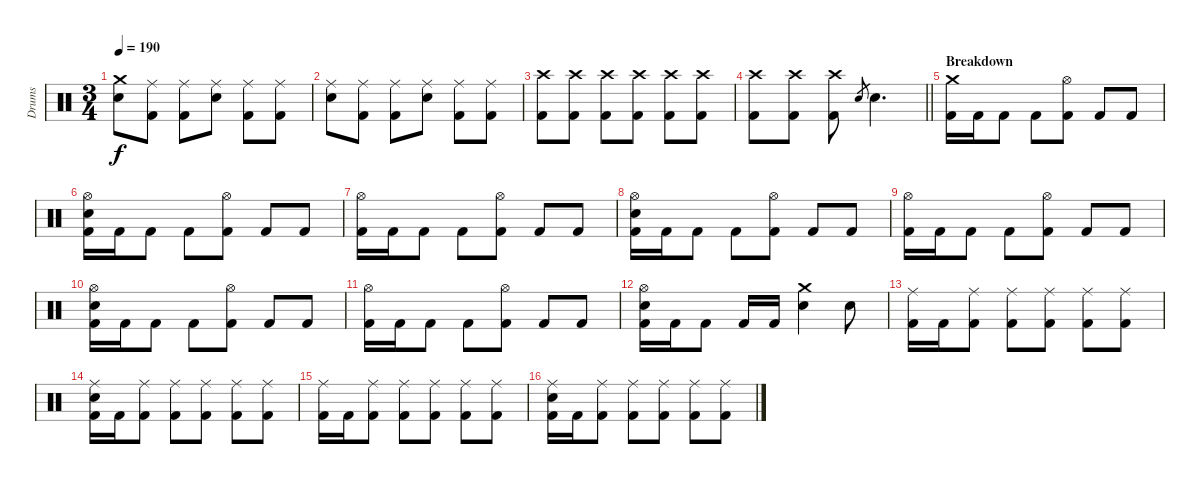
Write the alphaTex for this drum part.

\track ("Drums" "Drums") {instrument percussion}
\staff {score}
\articulation defaults
\ts (3 4)
\tempo 190
\clef neutral
\ks c
("Crash medium (hit)" "Snare (hit) 2").8{dy f} ("Ride (middle)" "Kick (hit) 2").8 ("Ride (middle)" "Kick (hit) 2").8 ("Ride (middle)" "Snare (hit) 2").8 ("Ride (middle)" "Kick (hit) 2").8 ("Ride (middle)" "Kick (hit) 2").8 |
("Ride (middle)" "Snare (hit) 2").8 ("Ride (middle)" "Kick (hit) 2").8 ("Ride (middle)" "Kick (hit) 2").8 ("Ride (middle)" "Snare (hit) 2").8 ("Ride (middle)" "Kick (hit) 2").8 ("Ride (middle)" "Kick (hit) 2").8 |
("Crash high (hit)" "Kick (hit) 2").8 ("Crash high (hit)" "Kick (hit) 2").8 ("Crash high (hit)" "Kick (hit) 2").8 ("Crash high (hit)" "Kick (hit) 2").8 ("Crash high (hit)" "Kick (hit) 2").8 ("Crash high (hit)" "Kick (hit) 2").8 |
\barLineRight lightlight
("Crash high (hit)" "Kick (hit) 2").8 ("Crash high (hit)" "Kick (hit) 2").8 ("Crash high (hit)" "Kick (hit) 2").8 "Snare (hit) 2".8{gr} "Snare (hit) 2".4{d} |
\section ("" "Breakdown")
("Crash medium (hit)" "Kick (hit) 2").16 "Kick (hit) 2".16 "Kick (hit) 2".8 "Kick (hit) 2".8 ("Hi-Hat (open)" "Kick (hit) 2").8 "Kick (hit) 2".8 "Kick (hit) 2".8 |
("Hi-Hat (open)" "Snare (hit) 2" "Kick (hit) 2").16 "Kick (hit) 2".16 "Kick (hit) 2".8 "Kick (hit) 2".8 ("Hi-Hat (open)" "Kick (hit) 2").8 "Kick (hit) 2".8 "Kick (hit) 2".8 |
("Hi-Hat (open)" "Kick (hit) 2").16 "Kick (hit) 2".16 "Kick (hit) 2".8 "Kick (hit) 2".8 ("Hi-Hat (open)" "Kick (hit) 2").8 "Kick (hit) 2".8 "Kick (hit) 2".8 |
("Hi-Hat (open)" "Snare (hit) 2" "Kick (hit) 2").16 "Kick (hit) 2".16 "Kick (hit) 2".8 "Kick (hit) 2".8 ("Hi-Hat (open)" "Kick (hit) 2").8 "Kick (hit) 2".8 "Kick (hit) 2".8 |
("Hi-Hat (open)" "Kick (hit) 2").16 "Kick (hit) 2".16 "Kick (hit) 2".8 "Kick (hit) 2".8 ("Hi-Hat (open)" "Kick (hit) 2").8 "Kick (hit) 2".8 "Kick (hit) 2".8 |
("Hi-Hat (open)" "Snare (hit) 2" "Kick (hit) 2").16 "Kick (hit) 2".16 "Kick (hit) 2".8 "Kick (hit) 2".8 ("Hi-Hat (open)" "Kick (hit) 2").8 "Kick (hit) 2".8 "Kick (hit) 2".8 |
("Hi-Hat (open)" "Kick (hit) 2").16 "Kick (hit) 2".16 "Kick (hit) 2".8 "Kick (hit) 2".8 ("Hi-Hat (open)" "Kick (hit) 2").8 "Kick (hit) 2".8 "Kick (hit) 2".8 |
("Hi-Hat (open)" "Snare (hit) 2" "Kick (hit) 2").16 "Kick (hit) 2".16 "Kick (hit) 2".8 "Kick (hit) 2".16 "Kick (hit) 2".16 ("Crash medium (hit)" "Snare (hit) 2").4 "Snare (hit) 2".8 |
("Ride (middle)" "Kick (hit) 2").16 "Kick (hit) 2".16 ("Ride (middle)" "Kick (hit) 2").8 ("Ride (middle)" "Kick (hit) 2").8 ("Ride (middle)" "Kick (hit) 2").8 ("Ride (middle)" "Kick (hit) 2").8 ("Ride (middle)" "Kick (hit) 2").8 |
("Ride (middle)" "Snare (hit) 2" "Kick (hit) 2").16 "Kick (hit) 2".16 ("Ride (middle)" "Kick (hit) 2").8 ("Ride (middle)" "Kick (hit) 2").8 ("Ride (middle)" "Kick (hit) 2").8 ("Ride (middle)" "Kick (hit) 2").8 ("Ride (middle)" "Kick (hit) 2").8 |
("Ride (middle)" "Kick (hit) 2").16 "Kick (hit) 2".16 ("Ride (middle)" "Kick (hit) 2").8 ("Ride (middle)" "Kick (hit) 2").8 ("Ride (middle)" "Kick (hit) 2").8 ("Ride (middle)" "Kick (hit) 2").8 ("Ride (middle)" "Kick (hit) 2").8 |
("Ride (middle)" "Snare (hit) 2" "Kick (hit) 2").16 "Kick (hit) 2".16 ("Ride (middle)" "Kick (hit) 2").8 ("Ride (middle)" "Kick (hit) 2").8 ("Ride (middle)" "Kick (hit) 2").8 ("Ride (middle)" "Kick (hit) 2").8 ("Ride (middle)" "Kick (hit) 2").8
